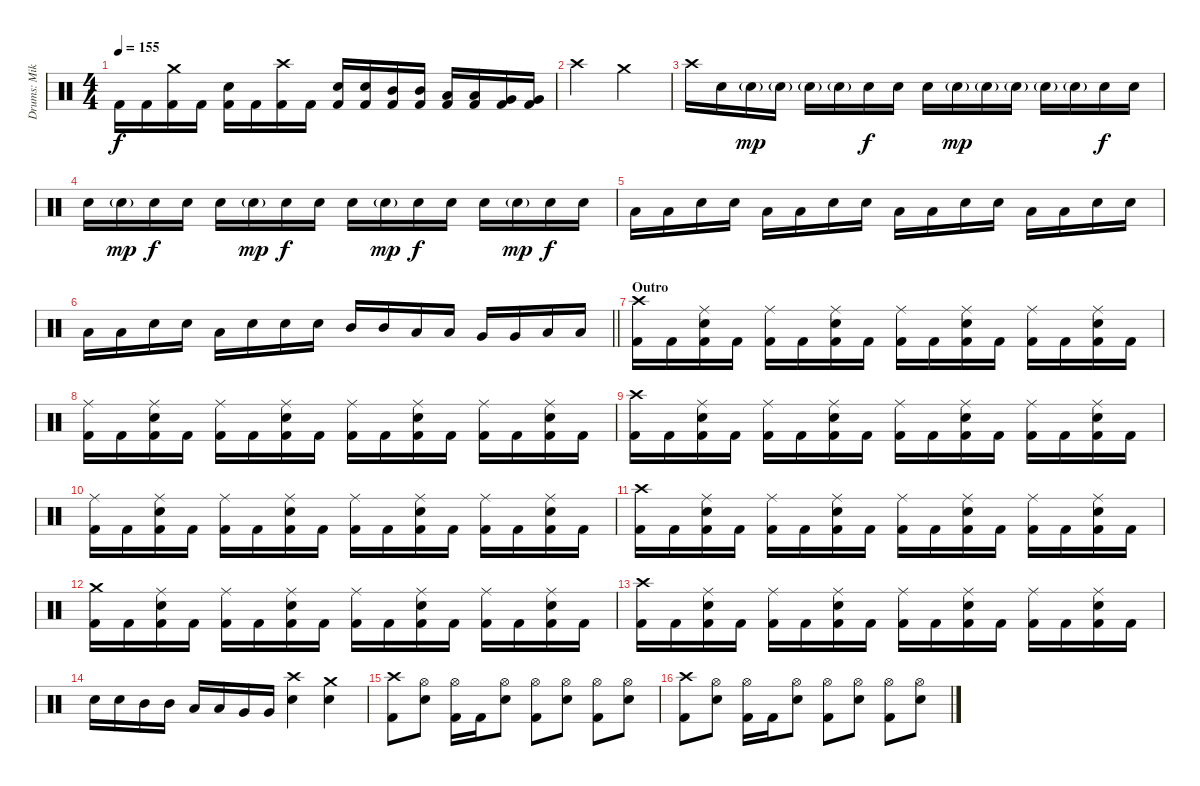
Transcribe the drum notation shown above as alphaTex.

\track ("Drums: Mikko Korsbäck" "Drums: Mik") {instrument percussion}
\staff {score}
\articulation defaults
\ts (4 4)
\tempo 155
\clef neutral
\ks c "Kick (hit) 2".16{dy f} "Kick (hit) 2".16
("Crash medium (hit)" "Kick (hit) 2").16 "Kick (hit) 2".16 ("Electric Snare (hit)" "Kick (hit) 2").16 "Kick (hit) 2".16 ("Crash high (hit)" "Kick (hit) 2").16 "Kick (hit) 2".16 ("Electric Snare (hit)" "Kick (hit) 2").16 ("Electric Snare (hit)" "Kick (hit) 2").16 ("Mid Tom (hit)" "Kick (hit) 2").16 ("Mid Tom (hit)" "Kick (hit) 2").16 ("Low Tom (hit)" "Kick (hit) 2").16 ("Low Tom (hit)" "Kick (hit) 2").16 ("Very Low Tom (hit)" "Kick (hit) 2").16 ("Very Low Tom (hit)" "Kick (hit) 2").16 |
"Crash high (hit)".2 "Crash medium (hit)".2 |
"Crash high (hit)".16 "Electric Snare (hit)".16 "Electric Snare (hit)"{g}.16{dy mp} "Electric Snare (hit)"{g}.16 "Electric Snare (hit)"{g}.16 "Electric Snare (hit)"{g}.16 "Electric Snare (hit)".16{dy f} "Electric Snare (hit)".16 "Electric Snare (hit)".16 "Electric Snare (hit)"{g}.16{dy mp} "Electric Snare (hit)"{g}.16 "Electric Snare (hit)"{g}.16 "Electric Snare (hit)"{g}.16 "Electric Snare (hit)"{g}.16 "Electric Snare (hit)".16{dy f} "Electric Snare (hit)".16 |
"Electric Snare (hit)".16 "Electric Snare (hit)"{g}.16{dy mp} "Electric Snare (hit)".16{dy f} "Electric Snare (hit)".16 "Electric Snare (hit)".16 "Electric Snare (hit)"{g}.16{dy mp} "Electric Snare (hit)".16{dy f} "Electric Snare (hit)".16 "Electric Snare (hit)".16 "Electric Snare (hit)"{g}.16{dy mp} "Electric Snare (hit)".16{dy f} "Electric Snare (hit)".16 "Electric Snare (hit)".16 "Electric Snare (hit)"{g}.16{dy mp} "Electric Snare (hit)".16{dy f} "Electric Snare (hit)".16 |
"Low Tom (hit)".16 "Low Tom (hit)".16 "Electric Snare (hit)".16 "Electric Snare (hit)".16 "Low Tom (hit)".16 "Low Tom (hit)".16 "Electric Snare (hit)".16 "Electric Snare (hit)".16 "Low Tom (hit)".16 "Low Tom (hit)".16 "Electric Snare (hit)".16 "Electric Snare (hit)".16 "Low Tom (hit)".16 "Low Tom (hit)".16 "Electric Snare (hit)".16 "Electric Snare (hit)".16 |
\barLineRight lightlight "Low Tom (hit)".16 "Low Tom (hit)".16 "Electric Snare (hit)".16 "Electric Snare (hit)".16 "Low Tom (hit)".16 "Electric Snare (hit)".16 "Electric Snare (hit)".16 "Electric Snare (hit)".16 "Mid Tom (hit)".16 "Mid Tom (hit)".16 "Low Tom (hit)".16 "Low Tom (hit)".16 "Very Low Tom (hit)".16 "Very Low Tom (hit)".16 "Low Floor Tom (hit)".16 "Low Floor Tom (hit)".16
|
\section ("" "Outro")
("Crash high (hit)" "Kick (hit) 2").16 "Kick (hit) 2".16 ("Ride (middle)" "Electric Snare (hit)" "Kick (hit) 2").16 "Kick (hit) 2".16 ("Ride (middle)" "Kick (hit) 2").16 "Kick (hit) 2".16 ("Ride (middle)" "Electric Snare (hit)" "Kick (hit) 2").16 "Kick (hit) 2".16 ("Ride (middle)" "Kick (hit) 2").16 "Kick (hit) 2".16 ("Ride (middle)" "Electric Snare (hit)" "Kick (hit) 2").16 "Kick (hit) 2".16 ("Ride (middle)" "Kick (hit) 2").16 "Kick (hit) 2".16 ("Ride (middle)" "Electric Snare (hit)" "Kick (hit) 2").16 "Kick (hit) 2".16 |
("Ride (middle)" "Kick (hit) 2").16 "Kick (hit) 2".16 ("Ride (middle)" "Electric Snare (hit)" "Kick (hit) 2").16 "Kick (hit) 2".16 ("Ride (middle)" "Kick (hit) 2").16 "Kick (hit) 2".16 ("Ride (middle)" "Electric Snare (hit)" "Kick (hit) 2").16 "Kick (hit) 2".16 ("Ride (middle)" "Kick (hit) 2").16 "Kick (hit) 2".16 ("Ride (middle)" "Electric Snare (hit)" "Kick (hit) 2").16 "Kick (hit) 2".16 ("Ride (middle)" "Kick (hit) 2").16 "Kick (hit) 2".16 ("Ride (middle)" "Electric Snare (hit)" "Kick (hit) 2").16 "Kick (hit) 2".16 |
("Crash high (hit)" "Kick (hit) 2").16 "Kick (hit) 2".16 ("Ride (middle)" "Electric Snare (hit)" "Kick (hit) 2").16 "Kick (hit) 2".16 ("Ride (middle)" "Kick (hit) 2").16 "Kick (hit) 2".16 ("Ride (middle)" "Electric Snare (hit)" "Kick (hit) 2").16 "Kick (hit) 2".16 ("Ride (middle)" "Kick (hit) 2").16 "Kick (hit) 2".16 ("Ride (middle)" "Electric Snare (hit)" "Kick (hit) 2").16 "Kick (hit) 2".16 ("Ride (middle)" "Kick (hit) 2").16 "Kick (hit) 2".16 ("Ride (middle)" "Electric Snare (hit)" "Kick (hit) 2").16 "Kick (hit) 2".16 |
("Ride (middle)" "Kick (hit) 2").16 "Kick (hit) 2".16 ("Ride (middle)" "Electric Snare (hit)" "Kick (hit) 2").16 "Kick (hit) 2".16 ("Ride (middle)" "Kick (hit) 2").16 "Kick (hit) 2".16 ("Ride (middle)" "Electric Snare (hit)" "Kick (hit) 2").16 "Kick (hit) 2".16 ("Ride (middle)" "Kick (hit) 2").16 "Kick (hit) 2".16 ("Ride (middle)" "Electric Snare (hit)" "Kick (hit) 2").16 "Kick (hit) 2".16 ("Ride (middle)" "Kick (hit) 2").16 "Kick (hit) 2".16 ("Ride (middle)" "Electric Snare (hit)" "Kick (hit) 2").16 "Kick (hit) 2".16 |
("Crash high (hit)" "Kick (hit) 2").16 "Kick (hit) 2".16 ("Ride (middle)" "Electric Snare (hit)" "Kick (hit) 2").16 "Kick (hit) 2".16 ("Ride (middle)" "Kick (hit) 2").16 "Kick (hit) 2".16 ("Ride (middle)" "Electric Snare (hit)" "Kick (hit) 2").16 "Kick (hit) 2".16 ("Ride (middle)" "Kick (hit) 2").16 "Kick (hit) 2".16 ("Ride (middle)" "Electric Snare (hit)" "Kick (hit) 2").16 "Kick (hit) 2".16 ("Ride (middle)" "Kick (hit) 2").16 "Kick (hit) 2".16 ("Ride (middle)" "Electric Snare (hit)" "Kick (hit) 2").16 "Kick (hit) 2".16 |
("Crash medium (hit)" "Kick (hit) 2").16 "Kick (hit) 2".16 ("Ride (middle)" "Electric Snare (hit)" "Kick (hit) 2").16 "Kick (hit) 2".16 ("Ride (middle)" "Kick (hit) 2").16 "Kick (hit) 2".16 ("Ride (middle)" "Electric Snare (hit)" "Kick (hit) 2").16 "Kick (hit) 2".16 ("Ride (middle)" "Kick (hit) 2").16 "Kick (hit) 2".16 ("Ride (middle)" "Electric Snare (hit)" "Kick (hit) 2").16 "Kick (hit) 2".16 ("Ride (middle)" "Kick (hit) 2").16 "Kick (hit) 2".16 ("Ride (middle)" "Electric Snare (hit)" "Kick (hit) 2").16 "Kick (hit) 2".16 |
("Crash high (hit)" "Kick (hit) 2").16 "Kick (hit) 2".16 ("Ride (middle)" "Electric Snare (hit)" "Kick (hit) 2").16 "Kick (hit) 2".16 ("Ride (middle)" "Kick (hit) 2").16 "Kick (hit) 2".16 ("Ride (middle)" "Electric Snare (hit)" "Kick (hit) 2").16 "Kick (hit) 2".16 ("Ride (middle)" "Kick (hit) 2").16 "Kick (hit) 2".16 ("Ride (middle)" "Electric Snare (hit)" "Kick (hit) 2").16 "Kick (hit) 2".16 ("Ride (middle)" "Kick (hit) 2").16 "Kick (hit) 2".16 ("Ride (middle)" "Electric Snare (hit)" "Kick (hit) 2").16 "Kick (hit) 2".16 |
\ks aminor "Electric Snare (hit)".16 "Electric Snare (hit)".16 "Mid Tom (hit)".16 "Mid Tom (hit)".16 "Low Tom (hit)".16 "Low Tom (hit)".16 "Very Low Tom (hit)".16 "Very Low Tom (hit)".16
("Crash high (hit)" "Electric Snare (hit)").4 ("Crash medium (hit)" "Electric Snare (hit)").4 |
\ks c
("Crash high (hit)" "Kick (hit) 2").8 ("Hi-Hat (open)" "Electric Snare (hit)").8 ("Hi-Hat (open)" "Kick (hit) 2").16 "Kick (hit) 2".16 ("Hi-Hat (open)" "Electric Snare (hit)").8 ("Hi-Hat (open)" "Kick (hit) 2").8 ("Hi-Hat (open)" "Electric Snare (hit)").8 ("Hi-Hat (open)" "Kick (hit) 2").8 ("Hi-Hat (open)" "Electric Snare (hit)").8 |
("Crash high (hit)" "Kick (hit) 2").8 ("Hi-Hat (open)" "Electric Snare (hit)").8 ("Hi-Hat (open)" "Kick (hit) 2").16 "Kick (hit) 2".16 ("Hi-Hat (open)" "Electric Snare (hit)").8 ("Hi-Hat (open)" "Kick (hit) 2").8 ("Hi-Hat (open)" "Electric Snare (hit)").8 ("Hi-Hat (open)" "Kick (hit) 2").8 ("Hi-Hat (open)" "Electric Snare (hit)").8
